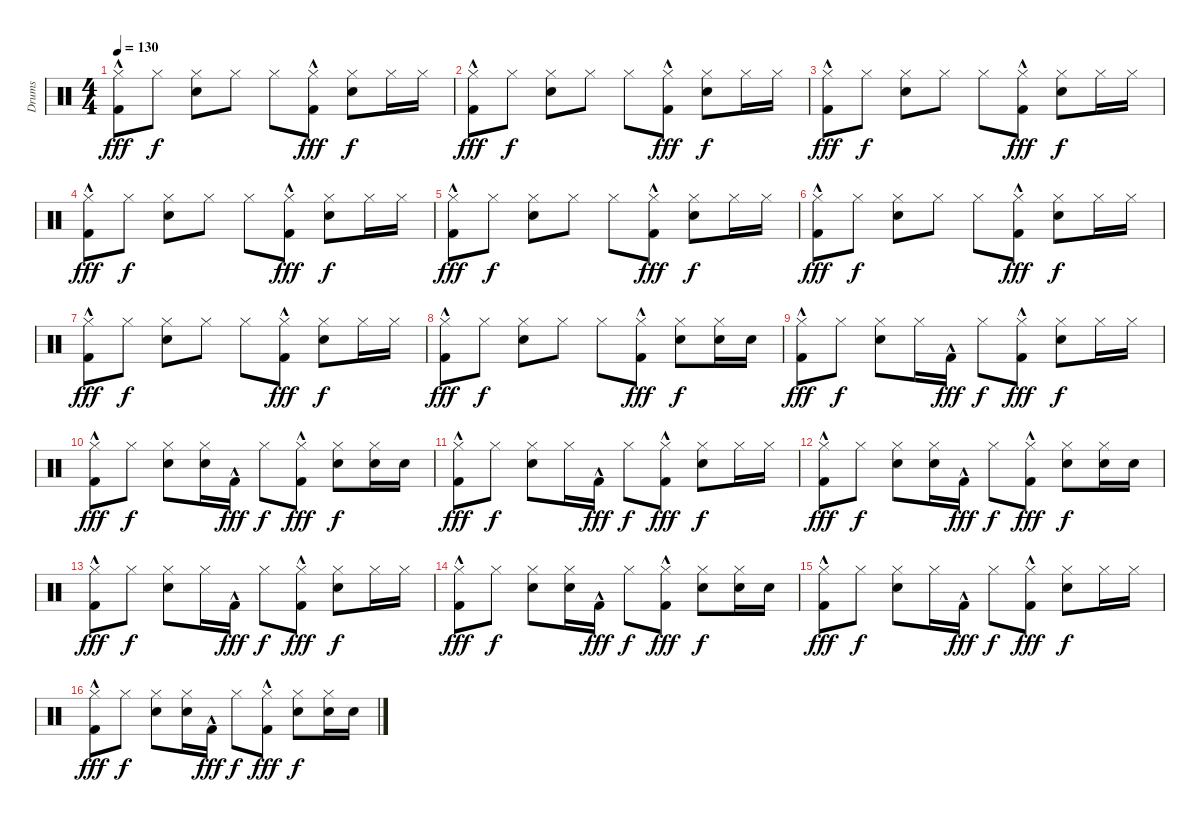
\track ("Drums" "Drums") {instrument percussion}
\staff {score}
\articulation defaults
\ts (4 4)
\tempo 130
\clef neutral
\ks c
("Hi-Hat (closed)" "Kick (hit) 2"{hac}).8{dy fff} "Hi-Hat (closed)".8{dy f} ("Hi-Hat (closed)" "Snare (hit) 2").8 "Hi-Hat (closed)".8 "Hi-Hat (closed)".8 ("Hi-Hat (closed)" "Kick (hit) 2"{hac}).8{dy fff} ("Hi-Hat (closed)" "Snare (hit) 2").8{dy f} "Hi-Hat (closed)".16 "Hi-Hat (closed)".16 |
("Hi-Hat (closed)" "Kick (hit) 2"{hac}).8{dy fff} "Hi-Hat (closed)".8{dy f} ("Hi-Hat (closed)" "Snare (hit) 2").8 "Hi-Hat (closed)".8 "Hi-Hat (closed)".8 ("Hi-Hat (closed)" "Kick (hit) 2"{hac}).8{dy fff} ("Hi-Hat (closed)" "Snare (hit) 2").8{dy f} "Hi-Hat (closed)".16 "Hi-Hat (closed)".16 |
("Hi-Hat (closed)" "Kick (hit) 2"{hac}).8{dy fff} "Hi-Hat (closed)".8{dy f} ("Hi-Hat (closed)" "Snare (hit) 2").8 "Hi-Hat (closed)".8 "Hi-Hat (closed)".8 ("Hi-Hat (closed)" "Kick (hit) 2"{hac}).8{dy fff} ("Hi-Hat (closed)" "Snare (hit) 2").8{dy f} "Hi-Hat (closed)".16 "Hi-Hat (closed)".16 |
("Hi-Hat (closed)" "Kick (hit) 2"{hac}).8{dy fff} "Hi-Hat (closed)".8{dy f} ("Hi-Hat (closed)" "Snare (hit) 2").8 "Hi-Hat (closed)".8 "Hi-Hat (closed)".8 ("Hi-Hat (closed)" "Kick (hit) 2"{hac}).8{dy fff} ("Hi-Hat (closed)" "Snare (hit) 2").8{dy f} "Hi-Hat (closed)".16 "Hi-Hat (closed)".16 |
("Hi-Hat (closed)" "Kick (hit) 2"{hac}).8{dy fff} "Hi-Hat (closed)".8{dy f} ("Hi-Hat (closed)" "Snare (hit) 2").8 "Hi-Hat (closed)".8 "Hi-Hat (closed)".8 ("Hi-Hat (closed)" "Kick (hit) 2"{hac}).8{dy fff} ("Hi-Hat (closed)" "Snare (hit) 2").8{dy f} "Hi-Hat (closed)".16 "Hi-Hat (closed)".16 |
("Hi-Hat (closed)" "Kick (hit) 2"{hac}).8{dy fff} "Hi-Hat (closed)".8{dy f} ("Hi-Hat (closed)" "Snare (hit) 2").8 "Hi-Hat (closed)".8 "Hi-Hat (closed)".8 ("Hi-Hat (closed)" "Kick (hit) 2"{hac}).8{dy fff} ("Hi-Hat (closed)" "Snare (hit) 2").8{dy f} "Hi-Hat (closed)".16 "Hi-Hat (closed)".16 |
("Hi-Hat (closed)" "Kick (hit) 2"{hac}).8{dy fff} "Hi-Hat (closed)".8{dy f} ("Hi-Hat (closed)" "Snare (hit) 2").8 "Hi-Hat (closed)".8 "Hi-Hat (closed)".8 ("Hi-Hat (closed)" "Kick (hit) 2"{hac}).8{dy fff} ("Hi-Hat (closed)" "Snare (hit) 2").8{dy f} "Hi-Hat (closed)".16 "Hi-Hat (closed)".16 |
("Hi-Hat (closed)" "Kick (hit) 2"{hac}).8{dy fff} "Hi-Hat (closed)".8{dy f} ("Hi-Hat (closed)" "Snare (hit) 2").8 "Hi-Hat (closed)".8 "Hi-Hat (closed)".8 ("Hi-Hat (closed)" "Kick (hit) 2"{hac}).8{dy fff} ("Hi-Hat (closed)" "Snare (hit) 2").8{dy f} ("Hi-Hat (closed)" "Snare (hit) 2").16 "Snare (hit) 2".16 |
("Hi-Hat (closed)" "Kick (hit) 2"{hac}).8{dy fff} "Hi-Hat (closed)".8{dy f} ("Hi-Hat (closed)" "Snare (hit) 2").8 "Hi-Hat (closed)".16 "Kick (hit) 2"{hac}.16{dy fff} "Hi-Hat (closed)".8{dy f} ("Hi-Hat (closed)" "Kick (hit) 2"{hac}).8{dy fff} ("Hi-Hat (closed)" "Snare (hit) 2").8{dy f} "Hi-Hat (closed)".16 "Hi-Hat (closed)".16 |
("Hi-Hat (closed)" "Kick (hit) 2"{hac}).8{dy fff} "Hi-Hat (closed)".8{dy f} ("Hi-Hat (closed)" "Snare (hit) 2").8 ("Hi-Hat (closed)" "Snare (hit) 2").16 "Kick (hit) 2"{hac}.16{dy fff} "Hi-Hat (closed)".8{dy f} ("Hi-Hat (closed)" "Kick (hit) 2"{hac}).8{dy fff} ("Hi-Hat (closed)" "Snare (hit) 2").8{dy f} ("Hi-Hat (closed)" "Snare (hit) 2").16 "Snare (hit) 2".16 |
("Hi-Hat (closed)" "Kick (hit) 2"{hac}).8{dy fff} "Hi-Hat (closed)".8{dy f} ("Hi-Hat (closed)" "Snare (hit) 2").8 "Hi-Hat (closed)".16 "Kick (hit) 2"{hac}.16{dy fff} "Hi-Hat (closed)".8{dy f} ("Hi-Hat (closed)" "Kick (hit) 2"{hac}).8{dy fff} ("Hi-Hat (closed)" "Snare (hit) 2").8{dy f} "Hi-Hat (closed)".16 "Hi-Hat (closed)".16 |
("Hi-Hat (closed)" "Kick (hit) 2"{hac}).8{dy fff} "Hi-Hat (closed)".8{dy f} ("Hi-Hat (closed)" "Snare (hit) 2").8 ("Hi-Hat (closed)" "Snare (hit) 2").16 "Kick (hit) 2"{hac}.16{dy fff} "Hi-Hat (closed)".8{dy f} ("Hi-Hat (closed)" "Kick (hit) 2"{hac}).8{dy fff} ("Hi-Hat (closed)" "Snare (hit) 2").8{dy f} ("Hi-Hat (closed)" "Snare (hit) 2").16 "Snare (hit) 2".16 |
("Hi-Hat (closed)" "Kick (hit) 2"{hac}).8{dy fff} "Hi-Hat (closed)".8{dy f} ("Hi-Hat (closed)" "Snare (hit) 2").8 "Hi-Hat (closed)".16 "Kick (hit) 2"{hac}.16{dy fff} "Hi-Hat (closed)".8{dy f} ("Hi-Hat (closed)" "Kick (hit) 2"{hac}).8{dy fff} ("Hi-Hat (closed)" "Snare (hit) 2").8{dy f} "Hi-Hat (closed)".16 "Hi-Hat (closed)".16 |
("Hi-Hat (closed)" "Kick (hit) 2"{hac}).8{dy fff} "Hi-Hat (closed)".8{dy f} ("Hi-Hat (closed)" "Snare (hit) 2").8 ("Hi-Hat (closed)" "Snare (hit) 2").16 "Kick (hit) 2"{hac}.16{dy fff} "Hi-Hat (closed)".8{dy f} ("Hi-Hat (closed)" "Kick (hit) 2"{hac}).8{dy fff} ("Hi-Hat (closed)" "Snare (hit) 2").8{dy f} ("Hi-Hat (closed)" "Snare (hit) 2").16 "Snare (hit) 2".16 |
("Hi-Hat (closed)" "Kick (hit) 2"{hac}).8{dy fff} "Hi-Hat (closed)".8{dy f} ("Hi-Hat (closed)" "Snare (hit) 2").8 "Hi-Hat (closed)".16 "Kick (hit) 2"{hac}.16{dy fff} "Hi-Hat (closed)".8{dy f} ("Hi-Hat (closed)" "Kick (hit) 2"{hac}).8{dy fff} ("Hi-Hat (closed)" "Snare (hit) 2").8{dy f} "Hi-Hat (closed)".16 "Hi-Hat (closed)".16 |
("Hi-Hat (closed)" "Kick (hit) 2"{hac}).8{dy fff} "Hi-Hat (closed)".8{dy f} ("Hi-Hat (closed)" "Snare (hit) 2").8 ("Hi-Hat (closed)" "Snare (hit) 2").16 "Kick (hit) 2"{hac}.16{dy fff} "Hi-Hat (closed)".8{dy f} ("Hi-Hat (closed)" "Kick (hit) 2"{hac}).8{dy fff} ("Hi-Hat (closed)" "Snare (hit) 2").8{dy f} ("Hi-Hat (closed)" "Snare (hit) 2").16 "Snare (hit) 2".16
